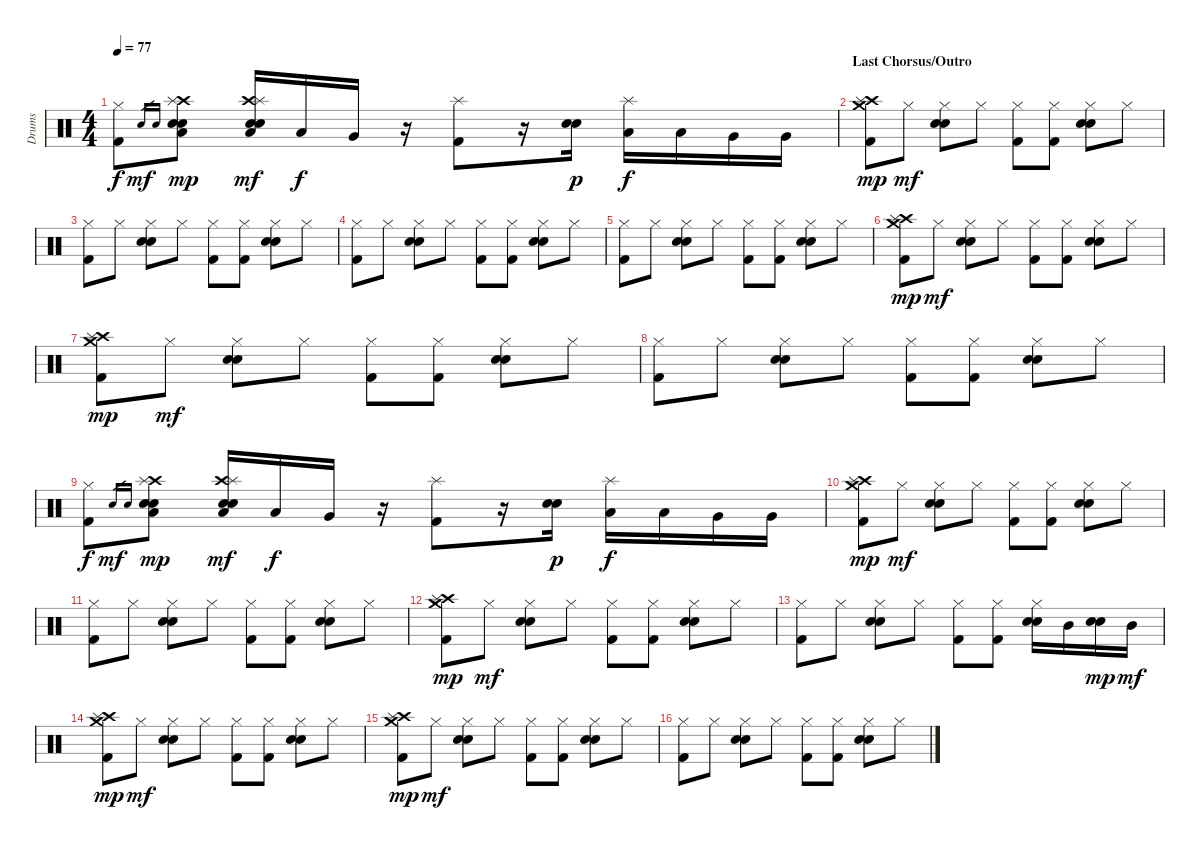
\track ("Drums" "Drums") {instrument percussion}
\staff {score}
\articulation defaults
\ts (4 4)
\tempo 77
\clef neutral
\ks c
("Hi-Hat (closed)" "Kick (hit) 2").8{dy f} "Snare (hit) 2".16{gr dy mf} "Electric Snare (hit)".16{gr} ("Crash high (hit)" "Splash (hit)" "Snare (hit) 2" "Electric Snare (hit)" "Low Tom (hit)").8{dy mp} ("Crash high (hit)" "Splash (hit)" "Snare (hit) 2" "Electric Snare (hit)" "Low Tom (hit)").16{dy mf} "Low Tom (hit)".16{dy f} "Very Low Tom (hit)".16 r.16 ("Splash (hit)" "Kick (hit) 2").8 r.16 ("Snare (hit) 2" "Electric Snare (hit)").16{dy p} ("Splash (hit)" "Low Tom (hit)").16{dy f} "Low Tom (hit)".16 "Very Low Tom (hit)".16 "Very Low Tom (hit)".16 |
\section ("" "Last Chorsus/Outro")
("Crash high (hit)" "Splash (hit)" "Crash medium (hit)" "Kick (hit) 2").8{dy mp} "Hi-Hat (closed)".8{dy mf} ("Hi-Hat (closed)" "Snare (hit) 2" "Electric Snare (hit)").8 "Hi-Hat (closed)".8 ("Hi-Hat (closed)" "Kick (hit) 2").8 ("Hi-Hat (closed)" "Kick (hit) 2").8 ("Hi-Hat (closed)" "Snare (hit) 2" "Electric Snare (hit)").8 "Hi-Hat (closed)".8 |
("Hi-Hat (closed)" "Kick (hit) 2").8 "Hi-Hat (closed)".8 ("Hi-Hat (closed)" "Snare (hit) 2" "Electric Snare (hit)").8 "Hi-Hat (closed)".8 ("Hi-Hat (closed)" "Kick (hit) 2").8 ("Hi-Hat (closed)" "Kick (hit) 2").8 ("Hi-Hat (closed)" "Snare (hit) 2" "Electric Snare (hit)").8 "Hi-Hat (closed)".8 |
("Hi-Hat (closed)" "Kick (hit) 2").8 "Hi-Hat (closed)".8 ("Hi-Hat (closed)" "Snare (hit) 2" "Electric Snare (hit)").8 "Hi-Hat (closed)".8 ("Hi-Hat (closed)" "Kick (hit) 2").8 ("Hi-Hat (closed)" "Kick (hit) 2").8 ("Hi-Hat (closed)" "Snare (hit) 2" "Electric Snare (hit)").8 "Hi-Hat (closed)".8 |
("Hi-Hat (closed)" "Kick (hit) 2").8 "Hi-Hat (closed)".8 ("Hi-Hat (closed)" "Snare (hit) 2" "Electric Snare (hit)").8 "Hi-Hat (closed)".8 ("Hi-Hat (closed)" "Kick (hit) 2").8 ("Hi-Hat (closed)" "Kick (hit) 2").8 ("Hi-Hat (closed)" "Snare (hit) 2" "Electric Snare (hit)").8 "Hi-Hat (closed)".8 |
("Crash high (hit)" "Splash (hit)" "Crash medium (hit)" "Kick (hit) 2").8{dy mp} "Hi-Hat (closed)".8{dy mf} ("Hi-Hat (closed)" "Snare (hit) 2" "Electric Snare (hit)").8 "Hi-Hat (closed)".8 ("Hi-Hat (closed)" "Kick (hit) 2").8 ("Hi-Hat (closed)" "Kick (hit) 2").8 ("Hi-Hat (closed)" "Snare (hit) 2" "Electric Snare (hit)").8 "Hi-Hat (closed)".8 |
("Crash high (hit)" "Splash (hit)" "Crash medium (hit)" "Kick (hit) 2").8{dy mp} "Hi-Hat (closed)".8{dy mf} ("Hi-Hat (closed)" "Snare (hit) 2" "Electric Snare (hit)").8 "Hi-Hat (closed)".8 ("Hi-Hat (closed)" "Kick (hit) 2").8 ("Hi-Hat (closed)" "Kick (hit) 2").8 ("Hi-Hat (closed)" "Snare (hit) 2" "Electric Snare (hit)").8 "Hi-Hat (closed)".8 |
("Hi-Hat (closed)" "Kick (hit) 2").8 "Hi-Hat (closed)".8 ("Hi-Hat (closed)" "Snare (hit) 2" "Electric Snare (hit)").8 "Hi-Hat (closed)".8 ("Hi-Hat (closed)" "Kick (hit) 2").8 ("Hi-Hat (closed)" "Kick (hit) 2").8 ("Hi-Hat (closed)" "Snare (hit) 2" "Electric Snare (hit)").8 "Hi-Hat (closed)".8 |
("Hi-Hat (closed)" "Kick (hit) 2").8{dy f} "Snare (hit) 2".16{gr dy mf} "Electric Snare (hit)".16{gr} ("Crash high (hit)" "Splash (hit)" "Snare (hit) 2" "Electric Snare (hit)" "Low Tom (hit)").8{dy mp} ("Crash high (hit)" "Splash (hit)" "Snare (hit) 2" "Electric Snare (hit)" "Low Tom (hit)").16{dy mf} "Low Tom (hit)".16{dy f} "Very Low Tom (hit)".16 r.16 ("Splash (hit)" "Kick (hit) 2").8 r.16 ("Snare (hit) 2" "Electric Snare (hit)").16{dy p} ("Splash (hit)" "Low Tom (hit)").16{dy f} "Low Tom (hit)".16 "Very Low Tom (hit)".16 "Very Low Tom (hit)".16 |
("Crash high (hit)" "Splash (hit)" "Crash medium (hit)" "Kick (hit) 2").8{dy mp} "Hi-Hat (closed)".8{dy mf} ("Hi-Hat (closed)" "Snare (hit) 2" "Electric Snare (hit)").8 "Hi-Hat (closed)".8 ("Hi-Hat (closed)" "Kick (hit) 2").8 ("Hi-Hat (closed)" "Kick (hit) 2").8 ("Hi-Hat (closed)" "Snare (hit) 2" "Electric Snare (hit)").8 "Hi-Hat (closed)".8 |
("Hi-Hat (closed)" "Kick (hit) 2").8 "Hi-Hat (closed)".8 ("Hi-Hat (closed)" "Snare (hit) 2" "Electric Snare (hit)").8 "Hi-Hat (closed)".8 ("Hi-Hat (closed)" "Kick (hit) 2").8 ("Hi-Hat (closed)" "Kick (hit) 2").8 ("Hi-Hat (closed)" "Snare (hit) 2" "Electric Snare (hit)").8 "Hi-Hat (closed)".8 |
("Crash high (hit)" "Splash (hit)" "Crash medium (hit)" "Kick (hit) 2").8{dy mp} "Hi-Hat (closed)".8{dy mf} ("Hi-Hat (closed)" "Snare (hit) 2" "Electric Snare (hit)").8 "Hi-Hat (closed)".8 ("Hi-Hat (closed)" "Kick (hit) 2").8 ("Hi-Hat (closed)" "Kick (hit) 2").8 ("Hi-Hat (closed)" "Snare (hit) 2" "Electric Snare (hit)").8 "Hi-Hat (closed)".8 |
("Hi-Hat (closed)" "Kick (hit) 2").8 "Hi-Hat (closed)".8 ("Hi-Hat (closed)" "Electric Snare (hit)" "Snare (hit) 2").8 "Hi-Hat (closed)".8 ("Hi-Hat (closed)" "Kick (hit) 2").8 ("Hi-Hat (closed)" "Kick (hit) 2").8 ("Hi-Hat (closed)" "Electric Snare (hit)" "Snare (hit) 2").16 "Mid Tom (hit)".16 ("Electric Snare (hit)" "Snare (hit) 2").16{dy mp} "Mid Tom (hit)".16{dy mf} |
("Crash high (hit)" "Splash (hit)" "Crash medium (hit)" "Kick (hit) 2").8{dy mp} "Hi-Hat (closed)".8{dy mf} ("Hi-Hat (closed)" "Snare (hit) 2" "Electric Snare (hit)").8 "Hi-Hat (closed)".8 ("Hi-Hat (closed)" "Kick (hit) 2").8 ("Hi-Hat (closed)" "Kick (hit) 2").8 ("Hi-Hat (closed)" "Snare (hit) 2" "Electric Snare (hit)").8 "Hi-Hat (closed)".8 |
("Crash high (hit)" "Splash (hit)" "Crash medium (hit)" "Kick (hit) 2").8{dy mp} "Hi-Hat (closed)".8{dy mf} ("Hi-Hat (closed)" "Snare (hit) 2" "Electric Snare (hit)").8 "Hi-Hat (closed)".8 ("Hi-Hat (closed)" "Kick (hit) 2").8 ("Hi-Hat (closed)" "Kick (hit) 2").8 ("Hi-Hat (closed)" "Snare (hit) 2" "Electric Snare (hit)").8 "Hi-Hat (closed)".8 |
("Hi-Hat (closed)" "Kick (hit) 2").8 "Hi-Hat (closed)".8 ("Hi-Hat (closed)" "Snare (hit) 2" "Electric Snare (hit)").8 "Hi-Hat (closed)".8 ("Hi-Hat (closed)" "Kick (hit) 2").8 ("Hi-Hat (closed)" "Kick (hit) 2").8 ("Hi-Hat (closed)" "Snare (hit) 2" "Electric Snare (hit)").8 "Hi-Hat (closed)".8
